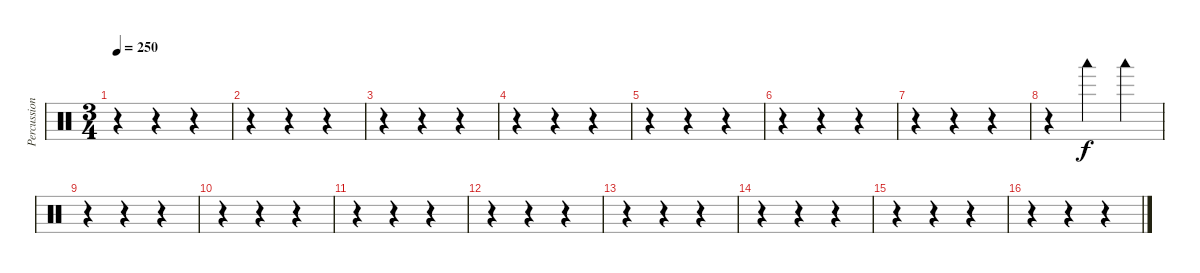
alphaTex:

\track ("Percussions" "Percussion") {instrument percussion}
\staff {score}
\articulation defaults
\ts (3 4)
\tempo 250
\clef neutral
\ks c
r.4{dy f} r.4 r.4 |
r.4 r.4 r.4 |
r.4 r.4 r.4 |
r.4 r.4 r.4 |
r.4 r.4 r.4 |
r.4 r.4 r.4 |
r.4 r.4 r.4 |
r.4 "Woodblock low (hit)".4 "Woodblock low (hit)".4 |
r.4 r.4 r.4 |
r.4 r.4 r.4 |
r.4 r.4 r.4 |
r.4 r.4 r.4 |
r.4 r.4 r.4 |
r.4 r.4 r.4 |
r.4 r.4 r.4 |
r.4 r.4 r.4
